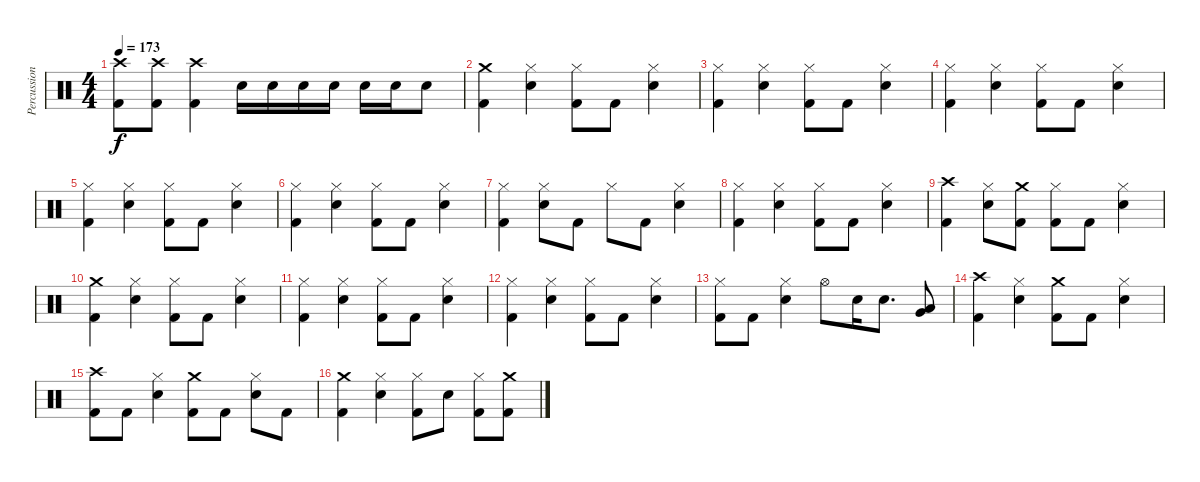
\track ("Percussion" "Percussion") {instrument percussion}
\staff {score}
\articulation defaults
\ts (4 4)
\tempo 173
\clef neutral
\ks c
("Crash high (hit)" "Kick (hit) 2").8{dy f} ("Crash high (hit)" "Kick (hit) 2").8 ("Crash high (hit)" "Kick (hit) 2").4 "Electric Snare (hit)".16 "Electric Snare (hit)".16 "Electric Snare (hit)".16 "Electric Snare (hit)".16 "Electric Snare (hit)".16 "Electric Snare (hit)".16 "Electric Snare (hit)".8 |
("Crash medium (hit)" "Kick (hit) 2").4 ("Hi-Hat (closed)" "Electric Snare (hit)").4 ("Hi-Hat (closed)" "Kick (hit) 2").8 "Kick (hit) 2".8 ("Hi-Hat (closed)" "Electric Snare (hit)").4 |
("Hi-Hat (closed)" "Kick (hit) 2").4 ("Hi-Hat (closed)" "Electric Snare (hit)").4 ("Hi-Hat (closed)" "Kick (hit) 2").8 "Kick (hit) 2".8 ("Hi-Hat (closed)" "Electric Snare (hit)").4 |
("Hi-Hat (closed)" "Kick (hit) 2").4 ("Hi-Hat (closed)" "Electric Snare (hit)").4 ("Hi-Hat (closed)" "Kick (hit) 2").8 "Kick (hit) 2".8 ("Hi-Hat (closed)" "Electric Snare (hit)").4 |
("Hi-Hat (closed)" "Kick (hit) 2").4 ("Hi-Hat (closed)" "Electric Snare (hit)").4 ("Hi-Hat (closed)" "Kick (hit) 2").8 "Kick (hit) 2".8 ("Hi-Hat (closed)" "Electric Snare (hit)").4 |
("Hi-Hat (closed)" "Kick (hit) 2").4 ("Hi-Hat (closed)" "Electric Snare (hit)").4 ("Hi-Hat (closed)" "Kick (hit) 2").8 "Kick (hit) 2".8 ("Hi-Hat (closed)" "Electric Snare (hit)").4 |
("Hi-Hat (closed)" "Kick (hit) 2").4 ("Hi-Hat (closed)" "Electric Snare (hit)").8 "Kick (hit) 2".8 "Hi-Hat (closed)".8 "Kick (hit) 2".8 ("Hi-Hat (closed)" "Electric Snare (hit)").4 |
("Hi-Hat (closed)" "Kick (hit) 2").4 ("Hi-Hat (closed)" "Electric Snare (hit)").4 ("Hi-Hat (closed)" "Kick (hit) 2").8 "Kick (hit) 2".8 ("Hi-Hat (closed)" "Electric Snare (hit)").4 |
("Crash high (hit)" "Kick (hit) 2").4 ("Hi-Hat (closed)" "Electric Snare (hit)").8 ("Crash medium (hit)" "Kick (hit) 2").8 ("Hi-Hat (closed)" "Kick (hit) 2").8 "Kick (hit) 2".8 ("Hi-Hat (closed)" "Electric Snare (hit)").4 |
("Crash medium (hit)" "Kick (hit) 2").4 ("Hi-Hat (closed)" "Electric Snare (hit)").4 ("Hi-Hat (closed)" "Kick (hit) 2").8 "Kick (hit) 2".8 ("Hi-Hat (closed)" "Electric Snare (hit)").4 |
("Hi-Hat (closed)" "Kick (hit) 2").4 ("Hi-Hat (closed)" "Electric Snare (hit)").4 ("Hi-Hat (closed)" "Kick (hit) 2").8 "Kick (hit) 2".8 ("Hi-Hat (closed)" "Electric Snare (hit)").4 |
("Hi-Hat (closed)" "Kick (hit) 2").4 ("Hi-Hat (closed)" "Electric Snare (hit)").4 ("Hi-Hat (closed)" "Kick (hit) 2").8 "Kick (hit) 2".8 ("Hi-Hat (closed)" "Electric Snare (hit)").4 |
("Hi-Hat (closed)" "Kick (hit) 2").8 "Kick (hit) 2".8 ("Hi-Hat (closed)" "Electric Snare (hit)").4 "Hi-Hat (open)".8 "Electric Snare (hit)".16 "Electric Snare (hit)".8{d} ("Low Tom (hit)" "Very Low Tom (hit)").8 |
("Crash high (hit)" "Kick (hit) 2").4 ("Hi-Hat (closed)" "Electric Snare (hit)").4 ("Crash medium (hit)" "Kick (hit) 2").8 "Kick (hit) 2".8 ("Hi-Hat (closed)" "Electric Snare (hit)").4 |
("Crash high (hit)" "Kick (hit) 2").8 "Kick (hit) 2".8 ("Hi-Hat (closed)" "Electric Snare (hit)").4 ("Crash medium (hit)" "Kick (hit) 2").8 "Kick (hit) 2".8 ("Hi-Hat (closed)" "Electric Snare (hit)").8 "Kick (hit) 2".8 |
("Crash medium (hit)" "Kick (hit) 2").4 ("Hi-Hat (closed)" "Electric Snare (hit)").4 ("Hi-Hat (closed)" "Kick (hit) 2").8 "Electric Snare (hit)".8 ("Hi-Hat (closed)" "Kick (hit) 2").8 ("Crash medium (hit)" "Kick (hit) 2").8
